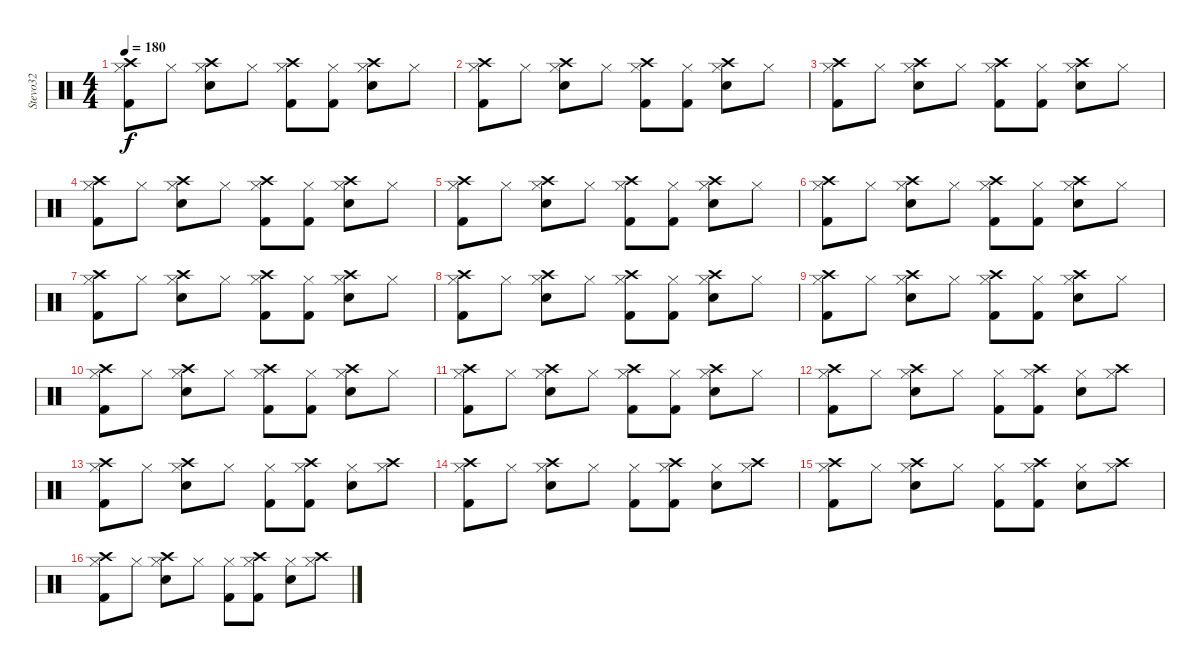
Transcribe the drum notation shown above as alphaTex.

\track ("Stevo32" "Stevo32") {instrument percussion}
\staff {score}
\articulation defaults
\ts (4 4)
\tempo 180
\clef neutral
\ks c
("Hi-Hat (closed)" "Kick (hit) 2" "Crash high (hit)").8{dy f} "Hi-Hat (closed)".8 ("Hi-Hat (closed)" "Electric Snare (hit)" "Crash high (hit)").8 "Hi-Hat (closed)".8 ("Hi-Hat (closed)" "Kick (hit) 2" "Crash high (hit)").8 ("Hi-Hat (closed)" "Kick (hit) 2").8 ("Hi-Hat (closed)" "Electric Snare (hit)" "Crash high (hit)").8 "Hi-Hat (closed)".8 |
("Hi-Hat (closed)" "Kick (hit) 2" "Crash high (hit)").8 "Hi-Hat (closed)".8 ("Hi-Hat (closed)" "Electric Snare (hit)" "Crash high (hit)").8 "Hi-Hat (closed)".8 ("Hi-Hat (closed)" "Kick (hit) 2" "Crash high (hit)").8 ("Hi-Hat (closed)" "Kick (hit) 2").8 ("Hi-Hat (closed)" "Electric Snare (hit)" "Crash high (hit)").8 "Hi-Hat (closed)".8 |
("Hi-Hat (closed)" "Kick (hit) 2" "Crash high (hit)").8 "Hi-Hat (closed)".8 ("Hi-Hat (closed)" "Electric Snare (hit)" "Crash high (hit)").8 "Hi-Hat (closed)".8 ("Hi-Hat (closed)" "Kick (hit) 2" "Crash high (hit)").8 ("Hi-Hat (closed)" "Kick (hit) 2").8 ("Hi-Hat (closed)" "Electric Snare (hit)" "Crash high (hit)").8 "Hi-Hat (closed)".8 |
("Hi-Hat (closed)" "Kick (hit) 2" "Crash high (hit)").8 "Hi-Hat (closed)".8 ("Hi-Hat (closed)" "Electric Snare (hit)" "Crash high (hit)").8 "Hi-Hat (closed)".8 ("Hi-Hat (closed)" "Kick (hit) 2" "Crash high (hit)").8 ("Hi-Hat (closed)" "Kick (hit) 2").8 ("Hi-Hat (closed)" "Electric Snare (hit)" "Crash high (hit)").8 "Hi-Hat (closed)".8 |
("Hi-Hat (closed)" "Kick (hit) 2" "Crash high (hit)").8 "Hi-Hat (closed)".8 ("Hi-Hat (closed)" "Electric Snare (hit)" "Crash high (hit)").8 "Hi-Hat (closed)".8 ("Hi-Hat (closed)" "Kick (hit) 2" "Crash high (hit)").8 ("Hi-Hat (closed)" "Kick (hit) 2").8 ("Hi-Hat (closed)" "Electric Snare (hit)" "Crash high (hit)").8 "Hi-Hat (closed)".8 |
("Hi-Hat (closed)" "Kick (hit) 2" "Crash high (hit)").8 "Hi-Hat (closed)".8 ("Hi-Hat (closed)" "Electric Snare (hit)" "Crash high (hit)").8 "Hi-Hat (closed)".8 ("Hi-Hat (closed)" "Kick (hit) 2" "Crash high (hit)").8 ("Hi-Hat (closed)" "Kick (hit) 2").8 ("Hi-Hat (closed)" "Electric Snare (hit)" "Crash high (hit)").8 "Hi-Hat (closed)".8 |
("Hi-Hat (closed)" "Kick (hit) 2" "Crash high (hit)").8 "Hi-Hat (closed)".8 ("Hi-Hat (closed)" "Electric Snare (hit)" "Crash high (hit)").8 "Hi-Hat (closed)".8 ("Hi-Hat (closed)" "Kick (hit) 2" "Crash high (hit)").8 ("Hi-Hat (closed)" "Kick (hit) 2").8 ("Hi-Hat (closed)" "Electric Snare (hit)" "Crash high (hit)").8 "Hi-Hat (closed)".8 |
("Hi-Hat (closed)" "Kick (hit) 2" "Crash high (hit)").8 "Hi-Hat (closed)".8 ("Hi-Hat (closed)" "Electric Snare (hit)" "Crash high (hit)").8 "Hi-Hat (closed)".8 ("Hi-Hat (closed)" "Kick (hit) 2" "Crash high (hit)").8 ("Hi-Hat (closed)" "Kick (hit) 2").8 ("Hi-Hat (closed)" "Electric Snare (hit)" "Crash high (hit)").8 "Hi-Hat (closed)".8 |
("Hi-Hat (closed)" "Kick (hit) 2" "Crash high (hit)").8 "Hi-Hat (closed)".8 ("Hi-Hat (closed)" "Electric Snare (hit)" "Crash high (hit)").8 "Hi-Hat (closed)".8 ("Hi-Hat (closed)" "Kick (hit) 2" "Crash high (hit)").8 ("Hi-Hat (closed)" "Kick (hit) 2").8 ("Hi-Hat (closed)" "Electric Snare (hit)" "Crash high (hit)").8 "Hi-Hat (closed)".8 |
("Hi-Hat (closed)" "Kick (hit) 2" "Crash high (hit)").8 "Hi-Hat (closed)".8 ("Hi-Hat (closed)" "Electric Snare (hit)" "Crash high (hit)").8 "Hi-Hat (closed)".8 ("Hi-Hat (closed)" "Kick (hit) 2" "Crash high (hit)").8 ("Hi-Hat (closed)" "Kick (hit) 2").8 ("Hi-Hat (closed)" "Electric Snare (hit)" "Crash high (hit)").8 "Hi-Hat (closed)".8 |
("Hi-Hat (closed)" "Kick (hit) 2" "Crash high (hit)").8 "Hi-Hat (closed)".8 ("Hi-Hat (closed)" "Electric Snare (hit)" "Crash high (hit)").8 "Hi-Hat (closed)".8 ("Hi-Hat (closed)" "Kick (hit) 2" "Crash high (hit)").8 ("Hi-Hat (closed)" "Kick (hit) 2").8 ("Hi-Hat (closed)" "Electric Snare (hit)" "Crash high (hit)").8 "Hi-Hat (closed)".8 |
("Hi-Hat (closed)" "Kick (hit) 2" "Crash high (hit)").8 "Hi-Hat (closed)".8 ("Hi-Hat (closed)" "Electric Snare (hit)" "Crash high (hit)").8 "Hi-Hat (closed)".8 ("Hi-Hat (closed)" "Kick (hit) 2").8 ("Hi-Hat (closed)" "Kick (hit) 2" "Crash high (hit)").8 ("Hi-Hat (closed)" "Electric Snare (hit)").8 ("Hi-Hat (closed)" "Crash high (hit)").8 |
("Hi-Hat (closed)" "Kick (hit) 2" "Crash high (hit)").8 "Hi-Hat (closed)".8 ("Hi-Hat (closed)" "Electric Snare (hit)" "Crash high (hit)").8 "Hi-Hat (closed)".8 ("Hi-Hat (closed)" "Kick (hit) 2").8 ("Hi-Hat (closed)" "Kick (hit) 2" "Crash high (hit)").8 ("Hi-Hat (closed)" "Electric Snare (hit)").8 ("Hi-Hat (closed)" "Crash high (hit)").8 |
("Hi-Hat (closed)" "Kick (hit) 2" "Crash high (hit)").8 "Hi-Hat (closed)".8 ("Hi-Hat (closed)" "Electric Snare (hit)" "Crash high (hit)").8 "Hi-Hat (closed)".8 ("Hi-Hat (closed)" "Kick (hit) 2").8 ("Hi-Hat (closed)" "Kick (hit) 2" "Crash high (hit)").8 ("Hi-Hat (closed)" "Electric Snare (hit)").8 ("Hi-Hat (closed)" "Crash high (hit)").8 |
("Hi-Hat (closed)" "Kick (hit) 2" "Crash high (hit)").8 "Hi-Hat (closed)".8 ("Hi-Hat (closed)" "Electric Snare (hit)" "Crash high (hit)").8 "Hi-Hat (closed)".8 ("Hi-Hat (closed)" "Kick (hit) 2").8 ("Hi-Hat (closed)" "Kick (hit) 2" "Crash high (hit)").8 ("Hi-Hat (closed)" "Electric Snare (hit)").8 ("Hi-Hat (closed)" "Crash high (hit)").8 |
("Hi-Hat (closed)" "Kick (hit) 2" "Crash high (hit)").8 "Hi-Hat (closed)".8 ("Hi-Hat (closed)" "Electric Snare (hit)" "Crash high (hit)").8 "Hi-Hat (closed)".8 ("Hi-Hat (closed)" "Kick (hit) 2").8 ("Hi-Hat (closed)" "Kick (hit) 2" "Crash high (hit)").8 ("Hi-Hat (closed)" "Electric Snare (hit)").8 ("Hi-Hat (closed)" "Crash high (hit)").8
